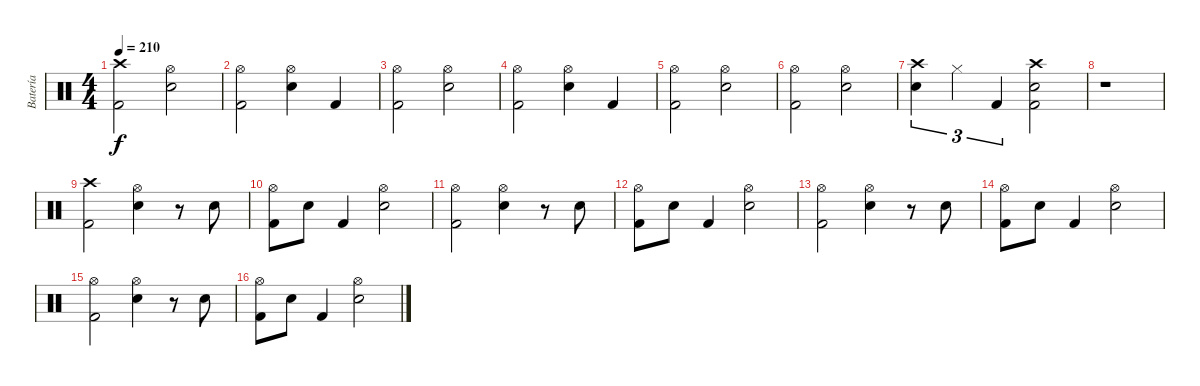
\track ("Batería" "Batería") {instrument percussion}
\staff {score}
\articulation defaults
\ts (4 4)
\tempo 210
\clef neutral
\ks c
("Crash high (hit)" "Kick (hit) 2").2{dy f} ("Hi-Hat (open)" "Snare (hit) 2").2 |
("Hi-Hat (open)" "Kick (hit) 2").2 ("Hi-Hat (open)" "Snare (hit) 2").4 "Kick (hit) 2".4 |
("Hi-Hat (open)" "Kick (hit) 2").2 ("Hi-Hat (open)" "Snare (hit) 2").2 |
("Hi-Hat (open)" "Kick (hit) 2").2 ("Hi-Hat (open)" "Snare (hit) 2").4 "Kick (hit) 2".4 |
("Hi-Hat (open)" "Kick (hit) 2").2 ("Hi-Hat (open)" "Snare (hit) 2").2 |
("Hi-Hat (open)" "Kick (hit) 2").2 ("Hi-Hat (open)" "Snare (hit) 2").2 |
("Crash high (hit)" "Snare (hit) 2").4{tu (3 2)} "Hi-Hat (closed)".4{tu (3 2)} "Kick (hit) 2".4{tu (3 2)} ("Kick (hit) 2" "Crash high (hit)" "Snare (hit) 2").2 |
r.1 |
("Crash high (hit)" "Kick (hit) 2").2 ("Hi-Hat (open)" "Snare (hit) 2").4 r.8 "Snare (hit) 2".8 |
("Hi-Hat (open)" "Kick (hit) 2").8 "Snare (hit) 2".8 "Kick (hit) 2".4 ("Hi-Hat (open)" "Snare (hit) 2").2 |
("Hi-Hat (open)" "Kick (hit) 2").2 ("Hi-Hat (open)" "Snare (hit) 2").4 r.8 "Snare (hit) 2".8 |
("Hi-Hat (open)" "Kick (hit) 2").8 "Snare (hit) 2".8 "Kick (hit) 2".4 ("Hi-Hat (open)" "Snare (hit) 2").2 |
("Hi-Hat (open)" "Kick (hit) 2").2 ("Hi-Hat (open)" "Snare (hit) 2").4 r.8 "Snare (hit) 2".8 |
("Hi-Hat (open)" "Kick (hit) 2").8 "Snare (hit) 2".8 "Kick (hit) 2".4 ("Hi-Hat (open)" "Snare (hit) 2").2 |
("Hi-Hat (open)" "Kick (hit) 2").2 ("Hi-Hat (open)" "Snare (hit) 2").4 r.8 "Snare (hit) 2".8 |
("Hi-Hat (open)" "Kick (hit) 2").8 "Snare (hit) 2".8 "Kick (hit) 2".4 ("Hi-Hat (open)" "Snare (hit) 2").2
